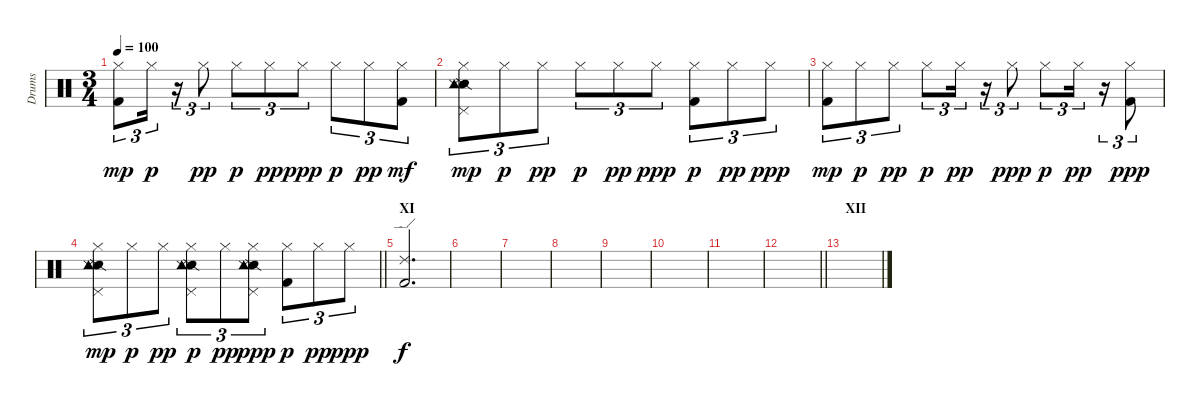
\track ("Drums" "Drums") {instrument percussion}
\staff {score}
\articulation defaults
\ts (3 4)
\tempo 100
\clef neutral
\ks c
("Hi-Hat (closed)" "Kick (hit) 2").8{tu (3 2) dy mp} "Hi-Hat (closed)".16{tu (3 2) dy p} r.16{tu (3 2)} "Hi-Hat (closed)".8{tu (3 2) dy pp} "Hi-Hat (closed)".8{tu (3 2) dy p} "Hi-Hat (closed)".8{tu (3 2) dy pp} "Hi-Hat (closed)".8{tu (3 2) dy ppp} "Hi-Hat (closed)".8{tu (3 2) dy p} "Hi-Hat (closed)".8{tu (3 2) dy pp} ("Hi-Hat (closed)" "Kick (hit) 2").8{tu (3 2) dy mf} |
("Hi-Hat (closed)" "Pedal Hi-Hat (hit)" "Snare (side stick) 2" "Snare (side stick) 3" "Tambourine (hit)").8{tu (3 2) dy mp} "Hi-Hat (closed)".8{tu (3 2) dy p} "Hi-Hat (closed)".8{tu (3 2) dy pp} "Hi-Hat (closed)".8{tu (3 2) dy p} "Hi-Hat (closed)".8{tu (3 2) dy pp} "Hi-Hat (closed)".8{tu (3 2) dy ppp} ("Hi-Hat (closed)" "Kick (hit) 2").8{tu (3 2) dy p} "Hi-Hat (closed)".8{tu (3 2) dy pp} "Hi-Hat (closed)".8{tu (3 2) dy ppp} |
("Hi-Hat (closed)" "Kick (hit) 2").8{tu (3 2) dy mp} "Hi-Hat (closed)".8{tu (3 2) dy p} "Hi-Hat (closed)".8{tu (3 2) dy pp} "Hi-Hat (closed)".8{tu (3 2) dy p} "Hi-Hat (closed)".16{tu (3 2) dy pp} r.16{tu (3 2)} "Hi-Hat (closed)".8{tu (3 2) dy ppp} "Hi-Hat (closed)".8{tu (3 2) dy p} "Hi-Hat (closed)".16{tu (3 2) dy pp} r.16{tu (3 2)} ("Hi-Hat (closed)" "Kick (hit) 2").8{tu (3 2) dy ppp} |
\barLineRight lightlight
("Hi-Hat (closed)" "Pedal Hi-Hat (hit)" "Snare (side stick) 2" "Snare (side stick) 3" "Tambourine (hit)").8{tu (3 2) dy mp} "Hi-Hat (closed)".8{tu (3 2) dy p} "Hi-Hat (closed)".8{tu (3 2) dy pp} ("Hi-Hat (closed)" "Pedal Hi-Hat (hit)" "Snare (side stick) 2" "Snare (side stick) 3" "Tambourine (hit)").8{tu (3 2) dy p} "Hi-Hat (closed)".8{tu (3 2) dy pp} ("Hi-Hat (closed)" "Pedal Hi-Hat (hit)" "Snare (side stick) 2" "Snare (side stick) 3" "Tambourine (hit)").8{tu (3 2) dy ppp} ("Hi-Hat (closed)" "Kick (hit) 2").8{tu (3 2) dy p} "Hi-Hat (closed)".8{tu (3 2) dy pp} "Hi-Hat (closed)".8{tu (3 2) dy ppp} |
\section ("" "XI")
("Ride (edge) 2" "Kick (hit) 2").2{d dy f} |
|
|
|
|
|
|
\barLineRight lightlight
|
\section ("" "XII")
